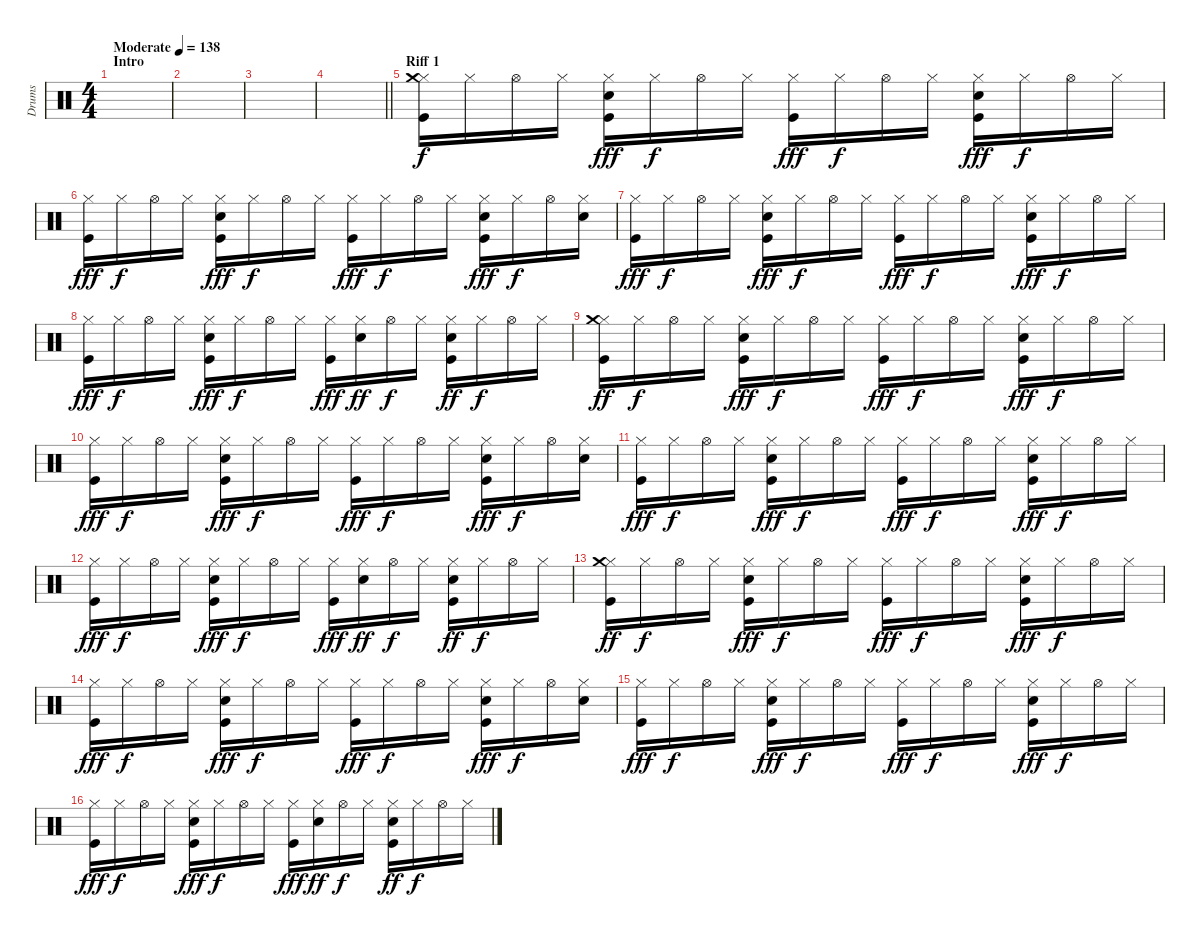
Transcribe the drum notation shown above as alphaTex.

\track ("Drums" "Drums") {instrument percussion}
\staff {score}
\articulation defaults
\ts (4 4)
\section ("" "Intro")
\tempo (138 "Moderate")
\clef neutral
\ks c
|
|
|
\barLineRight lightlight
|
\section ("" "Riff 1")
("Kick (hit)" "Hi-Hat (closed)" "Crash medium (hit)").16 "Hi-Hat (closed)".16{dy f} "Hi-Hat (open)".16 "Hi-Hat (closed)".16 ("Kick (hit)" "Electric Snare (hit)" "Hi-Hat (closed)").16{dy fff} "Hi-Hat (closed)".16{dy f} "Hi-Hat (open)".16 "Hi-Hat (closed)".16 ("Kick (hit)" "Hi-Hat (closed)").16{dy fff} "Hi-Hat (closed)".16{dy f} "Hi-Hat (open)".16 "Hi-Hat (closed)".16 ("Kick (hit)" "Electric Snare (hit)" "Hi-Hat (closed)").16{dy fff} "Hi-Hat (closed)".16{dy f} "Hi-Hat (open)".16 "Hi-Hat (closed)".16 |
("Kick (hit)" "Hi-Hat (closed)").16{dy fff} "Hi-Hat (closed)".16{dy f} "Hi-Hat (open)".16 "Hi-Hat (closed)".16 ("Kick (hit)" "Electric Snare (hit)" "Hi-Hat (closed)").16{dy fff} "Hi-Hat (closed)".16{dy f} "Hi-Hat (open)".16 "Hi-Hat (closed)".16 ("Kick (hit)" "Hi-Hat (closed)").16{dy fff} "Hi-Hat (closed)".16{dy f} "Hi-Hat (open)".16 "Hi-Hat (closed)".16 ("Kick (hit)" "Electric Snare (hit)" "Hi-Hat (closed)").16{dy fff} "Hi-Hat (closed)".16{dy f} "Hi-Hat (open)".16 ("Electric Snare (hit)" "Hi-Hat (closed)").16 |
("Kick (hit)" "Hi-Hat (closed)").16{dy fff} "Hi-Hat (closed)".16{dy f} "Hi-Hat (open)".16 "Hi-Hat (closed)".16 ("Kick (hit)" "Electric Snare (hit)" "Hi-Hat (closed)").16{dy fff} "Hi-Hat (closed)".16{dy f} "Hi-Hat (open)".16 "Hi-Hat (closed)".16 ("Kick (hit)" "Hi-Hat (closed)").16{dy fff} "Hi-Hat (closed)".16{dy f} "Hi-Hat (open)".16 "Hi-Hat (closed)".16 ("Kick (hit)" "Electric Snare (hit)" "Hi-Hat (closed)").16{dy fff} "Hi-Hat (closed)".16{dy f} "Hi-Hat (open)".16 "Hi-Hat (closed)".16 |
("Kick (hit)" "Hi-Hat (closed)").16{dy fff} "Hi-Hat (closed)".16{dy f} "Hi-Hat (open)".16 "Hi-Hat (closed)".16 ("Kick (hit)" "Electric Snare (hit)" "Hi-Hat (closed)").16{dy fff} "Hi-Hat (closed)".16{dy f} "Hi-Hat (open)".16 "Hi-Hat (closed)".16 ("Kick (hit)" "Hi-Hat (closed)").16{dy fff} ("Electric Snare (hit)" "Hi-Hat (closed)").16{dy ff} "Hi-Hat (open)".16{dy f} "Hi-Hat (closed)".16 ("Kick (hit)" "Electric Snare (hit)" "Hi-Hat (closed)").16{dy ff} "Hi-Hat (closed)".16{dy f} "Hi-Hat (open)".16 "Hi-Hat (closed)".16 |
("Kick (hit)" "Hi-Hat (closed)" "Crash medium (hit)").16{dy ff} "Hi-Hat (closed)".16{dy f} "Hi-Hat (open)".16 "Hi-Hat (closed)".16 ("Kick (hit)" "Electric Snare (hit)" "Hi-Hat (closed)").16{dy fff} "Hi-Hat (closed)".16{dy f} "Hi-Hat (open)".16 "Hi-Hat (closed)".16 ("Kick (hit)" "Hi-Hat (closed)").16{dy fff} "Hi-Hat (closed)".16{dy f} "Hi-Hat (open)".16 "Hi-Hat (closed)".16 ("Kick (hit)" "Electric Snare (hit)" "Hi-Hat (closed)").16{dy fff} "Hi-Hat (closed)".16{dy f} "Hi-Hat (open)".16 "Hi-Hat (closed)".16 |
("Kick (hit)" "Hi-Hat (closed)").16{dy fff} "Hi-Hat (closed)".16{dy f} "Hi-Hat (open)".16 "Hi-Hat (closed)".16 ("Kick (hit)" "Electric Snare (hit)" "Hi-Hat (closed)").16{dy fff} "Hi-Hat (closed)".16{dy f} "Hi-Hat (open)".16 "Hi-Hat (closed)".16 ("Kick (hit)" "Hi-Hat (closed)").16{dy fff} "Hi-Hat (closed)".16{dy f} "Hi-Hat (open)".16 "Hi-Hat (closed)".16 ("Kick (hit)" "Electric Snare (hit)" "Hi-Hat (closed)").16{dy fff} "Hi-Hat (closed)".16{dy f} "Hi-Hat (open)".16 ("Electric Snare (hit)" "Hi-Hat (closed)").16 |
("Kick (hit)" "Hi-Hat (closed)").16{dy fff} "Hi-Hat (closed)".16{dy f} "Hi-Hat (open)".16 "Hi-Hat (closed)".16 ("Kick (hit)" "Electric Snare (hit)" "Hi-Hat (closed)").16{dy fff} "Hi-Hat (closed)".16{dy f} "Hi-Hat (open)".16 "Hi-Hat (closed)".16 ("Kick (hit)" "Hi-Hat (closed)").16{dy fff} "Hi-Hat (closed)".16{dy f} "Hi-Hat (open)".16 "Hi-Hat (closed)".16 ("Kick (hit)" "Electric Snare (hit)" "Hi-Hat (closed)").16{dy fff} "Hi-Hat (closed)".16{dy f} "Hi-Hat (open)".16 "Hi-Hat (closed)".16 |
("Kick (hit)" "Hi-Hat (closed)").16{dy fff} "Hi-Hat (closed)".16{dy f} "Hi-Hat (open)".16 "Hi-Hat (closed)".16 ("Kick (hit)" "Electric Snare (hit)" "Hi-Hat (closed)").16{dy fff} "Hi-Hat (closed)".16{dy f} "Hi-Hat (open)".16 "Hi-Hat (closed)".16 ("Kick (hit)" "Hi-Hat (closed)").16{dy fff} ("Electric Snare (hit)" "Hi-Hat (closed)").16{dy ff} "Hi-Hat (open)".16{dy f} "Hi-Hat (closed)".16 ("Kick (hit)" "Electric Snare (hit)" "Hi-Hat (closed)").16{dy ff} "Hi-Hat (closed)".16{dy f} "Hi-Hat (open)".16 "Hi-Hat (closed)".16 |
("Kick (hit)" "Hi-Hat (closed)" "Crash medium (hit)").16{dy ff} "Hi-Hat (closed)".16{dy f} "Hi-Hat (open)".16 "Hi-Hat (closed)".16 ("Kick (hit)" "Electric Snare (hit)" "Hi-Hat (closed)").16{dy fff} "Hi-Hat (closed)".16{dy f} "Hi-Hat (open)".16 "Hi-Hat (closed)".16 ("Kick (hit)" "Hi-Hat (closed)").16{dy fff} "Hi-Hat (closed)".16{dy f} "Hi-Hat (open)".16 "Hi-Hat (closed)".16 ("Kick (hit)" "Electric Snare (hit)" "Hi-Hat (closed)").16{dy fff} "Hi-Hat (closed)".16{dy f} "Hi-Hat (open)".16 "Hi-Hat (closed)".16 |
("Kick (hit)" "Hi-Hat (closed)").16{dy fff} "Hi-Hat (closed)".16{dy f} "Hi-Hat (open)".16 "Hi-Hat (closed)".16 ("Kick (hit)" "Electric Snare (hit)" "Hi-Hat (closed)").16{dy fff} "Hi-Hat (closed)".16{dy f} "Hi-Hat (open)".16 "Hi-Hat (closed)".16 ("Kick (hit)" "Hi-Hat (closed)").16{dy fff} "Hi-Hat (closed)".16{dy f} "Hi-Hat (open)".16 "Hi-Hat (closed)".16 ("Kick (hit)" "Electric Snare (hit)" "Hi-Hat (closed)").16{dy fff} "Hi-Hat (closed)".16{dy f} "Hi-Hat (open)".16 ("Electric Snare (hit)" "Hi-Hat (closed)").16 |
("Kick (hit)" "Hi-Hat (closed)").16{dy fff} "Hi-Hat (closed)".16{dy f} "Hi-Hat (open)".16 "Hi-Hat (closed)".16 ("Kick (hit)" "Electric Snare (hit)" "Hi-Hat (closed)").16{dy fff} "Hi-Hat (closed)".16{dy f} "Hi-Hat (open)".16 "Hi-Hat (closed)".16 ("Kick (hit)" "Hi-Hat (closed)").16{dy fff} "Hi-Hat (closed)".16{dy f} "Hi-Hat (open)".16 "Hi-Hat (closed)".16 ("Kick (hit)" "Electric Snare (hit)" "Hi-Hat (closed)").16{dy fff} "Hi-Hat (closed)".16{dy f} "Hi-Hat (open)".16 "Hi-Hat (closed)".16 |
("Kick (hit)" "Hi-Hat (closed)").16{dy fff} "Hi-Hat (closed)".16{dy f} "Hi-Hat (open)".16 "Hi-Hat (closed)".16 ("Kick (hit)" "Electric Snare (hit)" "Hi-Hat (closed)").16{dy fff} "Hi-Hat (closed)".16{dy f} "Hi-Hat (open)".16 "Hi-Hat (closed)".16 ("Kick (hit)" "Hi-Hat (closed)").16{dy fff} ("Electric Snare (hit)" "Hi-Hat (closed)").16{dy ff} "Hi-Hat (open)".16{dy f} "Hi-Hat (closed)".16 ("Kick (hit)" "Electric Snare (hit)" "Hi-Hat (closed)").16{dy ff} "Hi-Hat (closed)".16{dy f} "Hi-Hat (open)".16 "Hi-Hat (closed)".16
